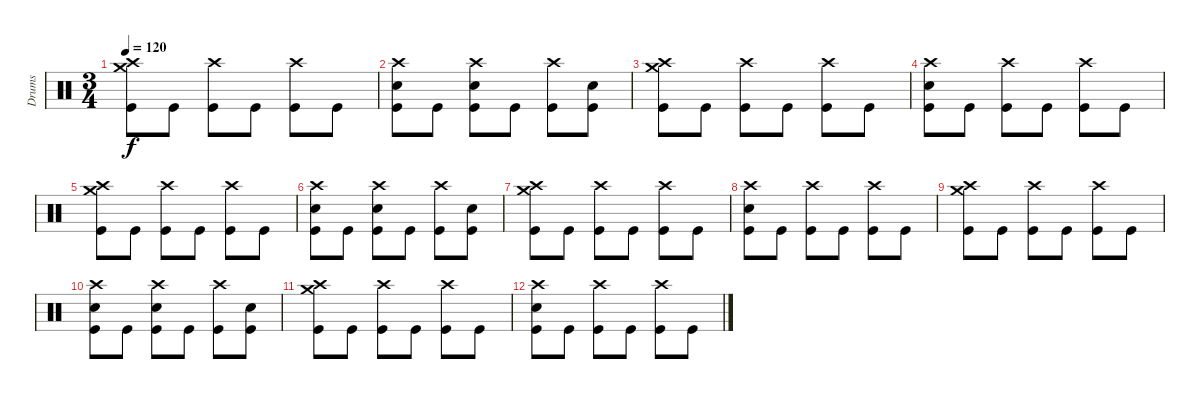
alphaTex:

\track ("Drums" "Drums") {instrument percussion}
\staff {score}
\articulation defaults
\ts (3 4)
\tempo 120
\clef neutral
\ks c
("Crash medium (hit)" "Crash high (hit)" "Kick (hit)").8{dy f} "Kick (hit)".8 ("Crash high (hit)" "Kick (hit)").8 "Kick (hit)".8 ("Crash high (hit)" "Kick (hit)").8 "Kick (hit)".8 |
("Crash high (hit)" "Snare (hit) 2" "Kick (hit)").8 "Kick (hit)".8 ("Crash high (hit)" "Snare (hit) 2" "Kick (hit)").8 "Kick (hit)".8 ("Crash high (hit)" "Kick (hit)").8 ("Snare (hit) 2" "Kick (hit)").8 |
("Crash high (hit)" "Crash medium (hit)" "Kick (hit)").8 "Kick (hit)".8 ("Crash high (hit)" "Kick (hit)").8 "Kick (hit)".8 ("Crash high (hit)" "Kick (hit)").8 "Kick (hit)".8 |
("Crash high (hit)" "Snare (hit) 2" "Kick (hit)").8 "Kick (hit)".8 ("Crash high (hit)" "Kick (hit)").8 "Kick (hit)".8 ("Crash high (hit)" "Kick (hit)").8 "Kick (hit)".8 |
("Crash medium (hit)" "Crash high (hit)" "Kick (hit)").8 "Kick (hit)".8 ("Crash high (hit)" "Kick (hit)").8 "Kick (hit)".8 ("Crash high (hit)" "Kick (hit)").8 "Kick (hit)".8 |
("Crash high (hit)" "Snare (hit) 2" "Kick (hit)").8 "Kick (hit)".8 ("Crash high (hit)" "Snare (hit) 2" "Kick (hit)").8 "Kick (hit)".8 ("Crash high (hit)" "Kick (hit)").8 ("Snare (hit) 2" "Kick (hit)").8 |
("Crash high (hit)" "Crash medium (hit)" "Kick (hit)").8{volume 12} "Kick (hit)".8 ("Crash high (hit)" "Kick (hit)").8 "Kick (hit)".8 ("Crash high (hit)" "Kick (hit)").8 "Kick (hit)".8 |
("Crash high (hit)" "Snare (hit) 2" "Kick (hit)").8{volume 9} "Kick (hit)".8 ("Crash high (hit)" "Kick (hit)").8 "Kick (hit)".8 ("Crash high (hit)" "Kick (hit)").8 "Kick (hit)".8 |
("Crash medium (hit)" "Crash high (hit)" "Kick (hit)").8{volume 6} "Kick (hit)".8 ("Crash high (hit)" "Kick (hit)").8 "Kick (hit)".8 ("Crash high (hit)" "Kick (hit)").8 "Kick (hit)".8 |
("Crash high (hit)" "Snare (hit) 2" "Kick (hit)").8{volume 5} "Kick (hit)".8 ("Crash high (hit)" "Snare (hit) 2" "Kick (hit)").8 "Kick (hit)".8 ("Crash high (hit)" "Kick (hit)").8 ("Snare (hit) 2" "Kick (hit)").8 |
("Crash high (hit)" "Crash medium (hit)" "Kick (hit)").8{volume 2} "Kick (hit)".8 ("Crash high (hit)" "Kick (hit)").8 "Kick (hit)".8 ("Crash high (hit)" "Kick (hit)").8 "Kick (hit)".8 |
("Crash high (hit)" "Snare (hit) 2" "Kick (hit)").8{volume 1} "Kick (hit)".8 ("Crash high (hit)" "Kick (hit)").8 "Kick (hit)".8 ("Crash high (hit)" "Kick (hit)").8 "Kick (hit)".8
